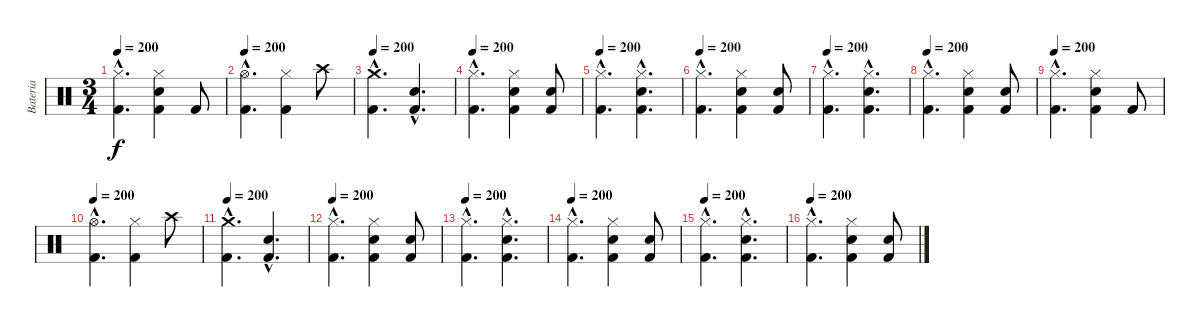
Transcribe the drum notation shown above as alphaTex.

\track ("Bateria" "Bateria") {instrument percussion}
\staff {score}
\articulation defaults
\ts (3 4)
\tempo 200
\clef neutral
\ks c
("Hi-Hat (closed)"{hac} "Kick (hit) 2"{hac}).4{d dy f} ("Hi-Hat (closed)" "Electric Snare (hit)" "Kick (hit) 2").4 "Kick (hit) 2".8 |
\tempo 200
("Hi-Hat (open)"{hac} "Kick (hit) 2"{hac}).4{d} ("Hi-Hat (closed)" "Kick (hit) 2").4 "Crash high (hit)".8 |
\tempo 200
("Crash medium (hit)"{hac} "Kick (hit) 2"{hac}).4{d} ("Electric Snare (hit)"{hac} "Kick (hit) 2"{hac}).4{d} |
\tempo 200
("Hi-Hat (closed)"{hac} "Kick (hit) 2"{hac}).4{d} ("Hi-Hat (closed)" "Electric Snare (hit)" "Kick (hit) 2").4 ("Electric Snare (hit)" "Kick (hit) 2").8 |
\tempo 200
("Hi-Hat (closed)"{hac} "Kick (hit) 2"{hac}).4{d} ("Hi-Hat (closed)"{hac} "Electric Snare (hit)"{hac} "Kick (hit) 2"{hac}).4{d} |
\tempo 200
("Hi-Hat (closed)"{hac} "Kick (hit) 2"{hac}).4{d} ("Hi-Hat (closed)" "Electric Snare (hit)" "Kick (hit) 2").4 ("Electric Snare (hit)" "Kick (hit) 2").8 |
\tempo 200
("Hi-Hat (closed)"{hac} "Kick (hit) 2"{hac}).4{d} ("Hi-Hat (closed)"{hac} "Electric Snare (hit)"{hac} "Kick (hit) 2"{hac}).4{d} |
\tempo 200
("Hi-Hat (closed)"{hac} "Kick (hit) 2"{hac}).4{d} ("Hi-Hat (closed)" "Electric Snare (hit)" "Kick (hit) 2").4 ("Electric Snare (hit)" "Kick (hit) 2").8 |
\tempo 200
("Hi-Hat (closed)"{hac} "Kick (hit) 2"{hac}).4{d} ("Hi-Hat (closed)" "Electric Snare (hit)" "Kick (hit) 2").4 "Kick (hit) 2".8 |
\tempo 200
("Hi-Hat (open)"{hac} "Kick (hit) 2"{hac}).4{d} ("Hi-Hat (closed)" "Kick (hit) 2").4 "Crash high (hit)".8 |
\tempo 200
("Crash medium (hit)"{hac} "Kick (hit) 2"{hac}).4{d} ("Electric Snare (hit)"{hac} "Kick (hit) 2"{hac}).4{d} |
\tempo 200
("Hi-Hat (closed)"{hac} "Kick (hit) 2"{hac}).4{d} ("Hi-Hat (closed)" "Electric Snare (hit)" "Kick (hit) 2").4 ("Electric Snare (hit)" "Kick (hit) 2").8 |
\tempo 200
("Hi-Hat (closed)"{hac} "Kick (hit) 2"{hac}).4{d} ("Hi-Hat (closed)"{hac} "Electric Snare (hit)"{hac} "Kick (hit) 2"{hac}).4{d} |
\tempo 200
("Hi-Hat (closed)"{hac} "Kick (hit) 2"{hac}).4{d} ("Hi-Hat (closed)" "Electric Snare (hit)" "Kick (hit) 2").4 ("Electric Snare (hit)" "Kick (hit) 2").8 |
\tempo 200
("Hi-Hat (closed)"{hac} "Kick (hit) 2"{hac}).4{d} ("Hi-Hat (closed)"{hac} "Electric Snare (hit)"{hac} "Kick (hit) 2"{hac}).4{d} |
\tempo 200
("Hi-Hat (closed)"{hac} "Kick (hit) 2"{hac}).4{d} ("Hi-Hat (closed)" "Electric Snare (hit)" "Kick (hit) 2").4 ("Electric Snare (hit)" "Kick (hit) 2").8
